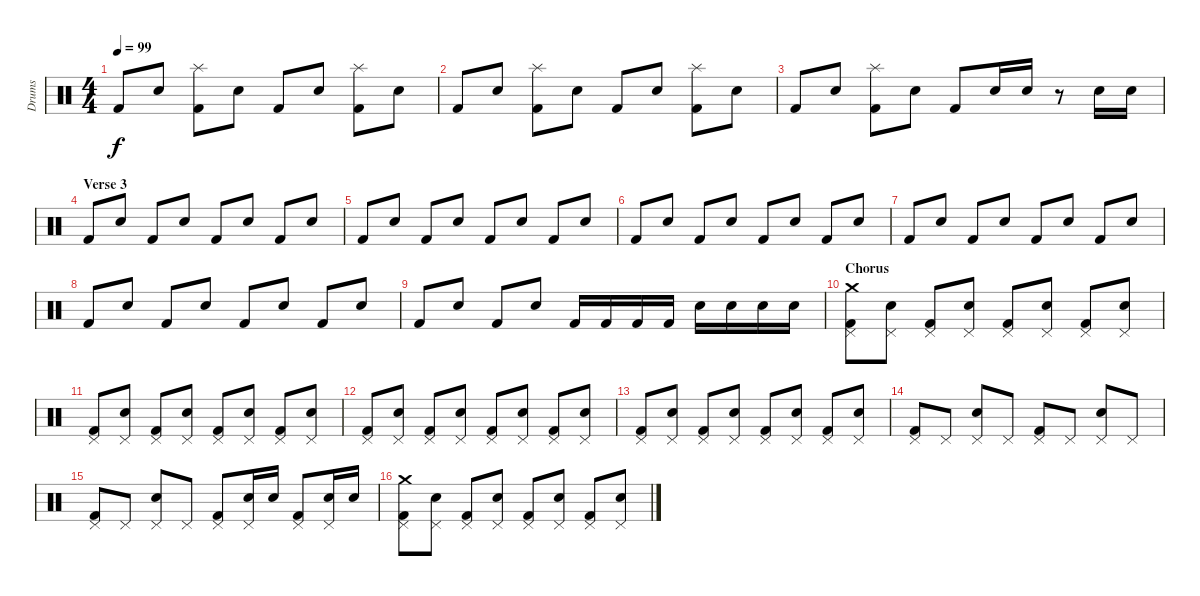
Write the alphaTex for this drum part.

\track ("Drums" "Drums") {instrument percussion}
\staff {score}
\articulation defaults
\ts (4 4)
\tempo 99
\clef neutral
\ks c "Kick (hit) 2".8{dy f} "Snare (hit) 2".8
("Splash (hit)" "Kick (hit) 2").8 "Snare (hit) 2".8 "Kick (hit) 2".8 "Snare (hit) 2".8 ("Splash (hit)" "Kick (hit) 2").8 "Snare (hit) 2".8 |
"Kick (hit) 2".8 "Snare (hit) 2".8 ("Splash (hit)" "Kick (hit) 2").8 "Snare (hit) 2".8 "Kick (hit) 2".8 "Snare (hit) 2".8 ("Splash (hit)" "Kick (hit) 2").8 "Snare (hit) 2".8 |
"Kick (hit) 2".8 "Snare (hit) 2".8 ("Splash (hit)" "Kick (hit) 2").8 "Snare (hit) 2".8 "Kick (hit) 2".8 "Snare (hit) 2".16 "Snare (hit) 2".16 r.8 "Snare (hit) 2".16 "Snare (hit) 2".16 |
\section ("" "Verse 3")
"Kick (hit) 2".8 "Snare (hit) 2".8 "Kick (hit) 2".8 "Snare (hit) 2".8 "Kick (hit) 2".8 "Snare (hit) 2".8 "Kick (hit) 2".8 "Snare (hit) 2".8 |
"Kick (hit) 2".8 "Snare (hit) 2".8 "Kick (hit) 2".8 "Snare (hit) 2".8 "Kick (hit) 2".8 "Snare (hit) 2".8 "Kick (hit) 2".8 "Snare (hit) 2".8 |
"Kick (hit) 2".8 "Snare (hit) 2".8 "Kick (hit) 2".8 "Snare (hit) 2".8 "Kick (hit) 2".8 "Snare (hit) 2".8 "Kick (hit) 2".8 "Snare (hit) 2".8 |
"Kick (hit) 2".8 "Snare (hit) 2".8 "Kick (hit) 2".8 "Snare (hit) 2".8 "Kick (hit) 2".8 "Snare (hit) 2".8 "Kick (hit) 2".8 "Snare (hit) 2".8 |
"Kick (hit) 2".8 "Snare (hit) 2".8 "Kick (hit) 2".8 "Snare (hit) 2".8 "Kick (hit) 2".8 "Snare (hit) 2".8 "Kick (hit) 2".8 "Snare (hit) 2".8 |
"Kick (hit) 2".8 "Snare (hit) 2".8 "Kick (hit) 2".8 "Snare (hit) 2".8 "Kick (hit) 2".16 "Kick (hit) 2".16 "Kick (hit) 2".16 "Kick (hit) 2".16 "Snare (hit) 2".16 "Snare (hit) 2".16 "Snare (hit) 2".16 "Snare (hit) 2".16 |
\section ("" "Chorus")
("Pedal Hi-Hat (hit)" "Crash medium (hit)" "Kick (hit) 2").8 ("Pedal Hi-Hat (hit)" "Snare (hit) 2").8 ("Pedal Hi-Hat (hit)" "Kick (hit) 2").8 ("Pedal Hi-Hat (hit)" "Snare (hit) 2").8 ("Pedal Hi-Hat (hit)" "Kick (hit) 2").8 ("Pedal Hi-Hat (hit)" "Snare (hit) 2").8 ("Pedal Hi-Hat (hit)" "Kick (hit) 2").8 ("Pedal Hi-Hat (hit)" "Snare (hit) 2").8 |
("Pedal Hi-Hat (hit)" "Kick (hit) 2").8 ("Pedal Hi-Hat (hit)" "Snare (hit) 2").8 ("Pedal Hi-Hat (hit)" "Kick (hit) 2").8 ("Pedal Hi-Hat (hit)" "Snare (hit) 2").8 ("Pedal Hi-Hat (hit)" "Kick (hit) 2").8 ("Pedal Hi-Hat (hit)" "Snare (hit) 2").8 ("Pedal Hi-Hat (hit)" "Kick (hit) 2").8 ("Pedal Hi-Hat (hit)" "Snare (hit) 2").8 |
("Pedal Hi-Hat (hit)" "Kick (hit) 2").8 ("Pedal Hi-Hat (hit)" "Snare (hit) 2").8 ("Pedal Hi-Hat (hit)" "Kick (hit) 2").8 ("Pedal Hi-Hat (hit)" "Snare (hit) 2").8 ("Pedal Hi-Hat (hit)" "Kick (hit) 2").8 ("Pedal Hi-Hat (hit)" "Snare (hit) 2").8 ("Pedal Hi-Hat (hit)" "Kick (hit) 2").8 ("Pedal Hi-Hat (hit)" "Snare (hit) 2").8 |
("Pedal Hi-Hat (hit)" "Kick (hit) 2").8 ("Pedal Hi-Hat (hit)" "Snare (hit) 2").8 ("Pedal Hi-Hat (hit)" "Kick (hit) 2").8 ("Pedal Hi-Hat (hit)" "Snare (hit) 2").8 ("Pedal Hi-Hat (hit)" "Kick (hit) 2").8 ("Pedal Hi-Hat (hit)" "Snare (hit) 2").8 ("Pedal Hi-Hat (hit)" "Kick (hit) 2").8 ("Pedal Hi-Hat (hit)" "Snare (hit) 2").8 |
("Pedal Hi-Hat (hit)" "Kick (hit) 2").8 "Pedal Hi-Hat (hit)".8 ("Pedal Hi-Hat (hit)" "Snare (hit) 2").8 "Pedal Hi-Hat (hit)".8 ("Pedal Hi-Hat (hit)" "Kick (hit) 2").8 "Pedal Hi-Hat (hit)".8 ("Pedal Hi-Hat (hit)" "Snare (hit) 2").8 "Pedal Hi-Hat (hit)".8 |
("Pedal Hi-Hat (hit)" "Kick (hit) 2").8 "Pedal Hi-Hat (hit)".8 ("Pedal Hi-Hat (hit)" "Snare (hit) 2").8 "Pedal Hi-Hat (hit)".8 ("Pedal Hi-Hat (hit)" "Kick (hit) 2").8 ("Pedal Hi-Hat (hit)" "Snare (hit) 2").16 "Snare (hit) 2".16 ("Pedal Hi-Hat (hit)" "Kick (hit) 2").8 ("Pedal Hi-Hat (hit)" "Snare (hit) 2").16 "Snare (hit) 2".16 |
("Pedal Hi-Hat (hit)" "Crash medium (hit)" "Kick (hit) 2").8 ("Pedal Hi-Hat (hit)" "Snare (hit) 2").8 ("Pedal Hi-Hat (hit)" "Kick (hit) 2").8 ("Pedal Hi-Hat (hit)" "Snare (hit) 2").8 ("Pedal Hi-Hat (hit)" "Kick (hit) 2").8 ("Pedal Hi-Hat (hit)" "Snare (hit) 2").8 ("Pedal Hi-Hat (hit)" "Kick (hit) 2").8 ("Pedal Hi-Hat (hit)" "Snare (hit) 2").8
